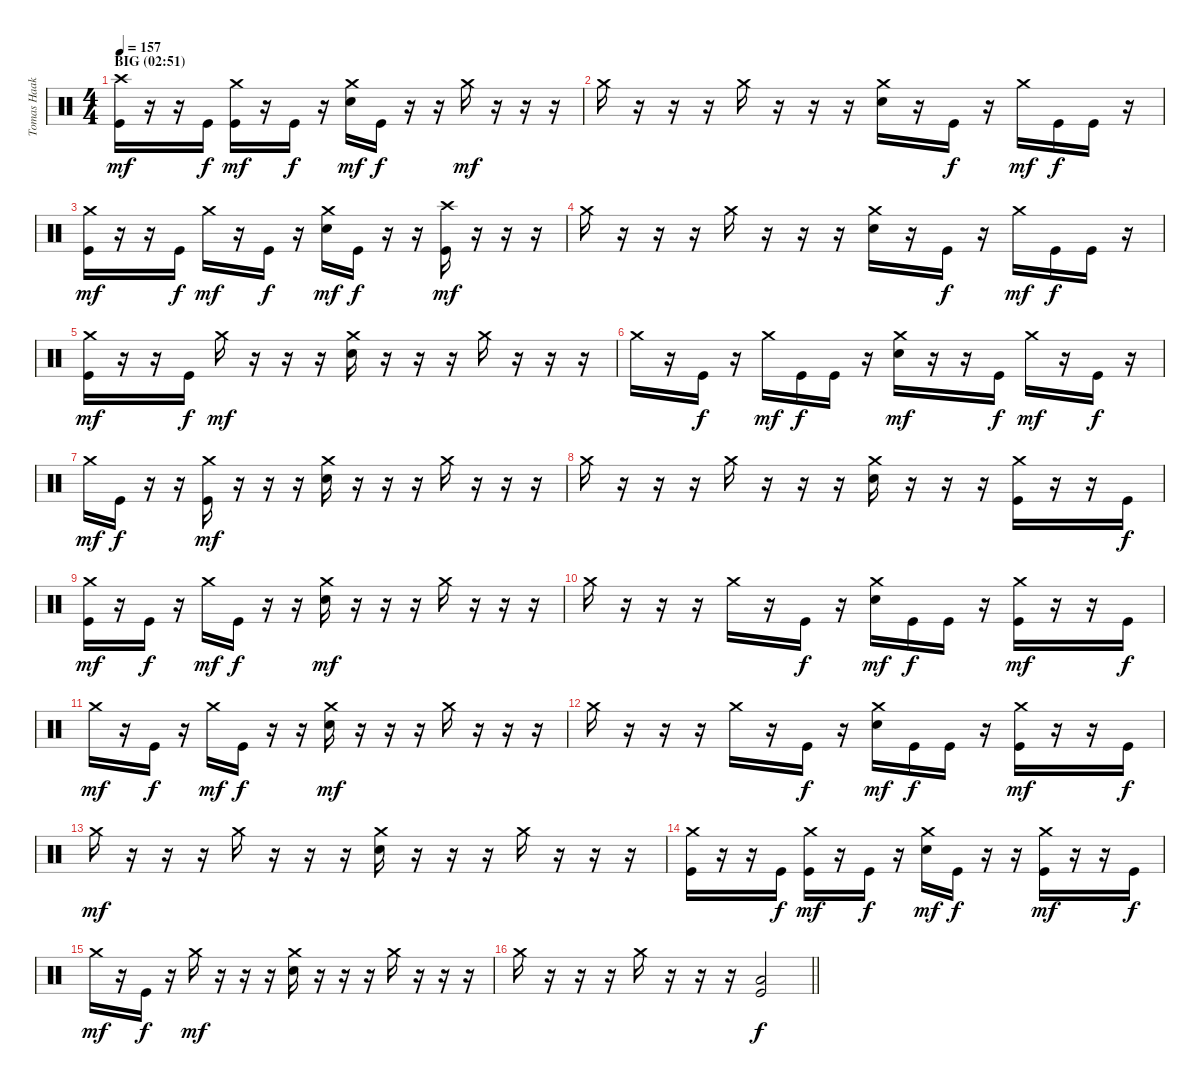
\track ("Tomas Haake (Drums)" "Tomas Haak") {instrument percussion}
\staff {score}
\articulation defaults
\ts (4 4)
\section ("" "BIG (02:51)")
\tempo 157
\clef neutral
\ks c
("Crash high (hit)" "Kick (hit)").16{dy mf} r.16 r.16 "Kick (hit)".16{dy f} ("Crash medium (hit)" "Kick (hit)").16{dy mf} r.16 "Kick (hit)".16{dy f} r.16 ("Crash medium (hit)" "Electric Snare (hit)").16{dy mf} "Kick (hit)".16{dy f} r.16 r.16 "Crash medium (hit)".16{dy mf} r.16 r.16 r.16 |
"Crash medium (hit)".16 r.16 r.16 r.16 "Crash medium (hit)".16 r.16 r.16 r.16 ("Crash medium (hit)" "Electric Snare (hit)").16 r.16 "Kick (hit)".16{dy f} r.16 "Crash medium (hit)".16{dy mf} "Kick (hit)".16{dy f} "Kick (hit)".16 r.16 |
("Crash medium (hit)" "Kick (hit)").16{dy mf} r.16 r.16 "Kick (hit)".16{dy f} "Crash medium (hit)".16{dy mf} r.16 "Kick (hit)".16{dy f} r.16 ("Crash medium (hit)" "Electric Snare (hit)").16{dy mf} "Kick (hit)".16{dy f} r.16 r.16 ("Crash high (hit)" "Kick (hit)").16{dy mf} r.16 r.16 r.16 |
"Crash medium (hit)".16 r.16 r.16 r.16 "Crash medium (hit)".16 r.16 r.16 r.16 ("Crash medium (hit)" "Electric Snare (hit)").16 r.16 "Kick (hit)".16{dy f} r.16 "Crash medium (hit)".16{dy mf} "Kick (hit)".16{dy f} "Kick (hit)".16 r.16 |
("Crash medium (hit)" "Kick (hit)").16{dy mf} r.16 r.16 "Kick (hit)".16{dy f} "Crash medium (hit)".16{dy mf} r.16 r.16 r.16 ("Crash medium (hit)" "Electric Snare (hit)").16 r.16 r.16 r.16 "Crash medium (hit)".16 r.16 r.16 r.16 |
"Crash medium (hit)".16 r.16 "Kick (hit)".16{dy f} r.16 "Crash medium (hit)".16{dy mf} "Kick (hit)".16{dy f} "Kick (hit)".16 r.16 ("Crash medium (hit)" "Electric Snare (hit)").16{dy mf} r.16 r.16 "Kick (hit)".16{dy f} "Crash medium (hit)".16{dy mf} r.16 "Kick (hit)".16{dy f} r.16 |
"Crash medium (hit)".16{dy mf} "Kick (hit)".16{dy f} r.16 r.16 ("Crash medium (hit)" "Kick (hit)").16{dy mf} r.16 r.16 r.16 ("Crash medium (hit)" "Electric Snare (hit)").16 r.16 r.16 r.16 "Crash medium (hit)".16 r.16 r.16 r.16 |
"Crash medium (hit)".16 r.16 r.16 r.16 "Crash medium (hit)".16 r.16 r.16 r.16 ("Crash medium (hit)" "Electric Snare (hit)").16 r.16 r.16 r.16 ("Crash medium (hit)" "Kick (hit)").16 r.16 r.16 "Kick (hit)".16{dy f} |
("Crash medium (hit)" "Kick (hit)").16{dy mf} r.16 "Kick (hit)".16{dy f} r.16 "Crash medium (hit)".16{dy mf} "Kick (hit)".16{dy f} r.16 r.16 ("Crash medium (hit)" "Electric Snare (hit)").16{dy mf} r.16 r.16 r.16 "Crash medium (hit)".16 r.16 r.16 r.16 |
"Crash medium (hit)".16 r.16 r.16 r.16 "Crash medium (hit)".16 r.16 "Kick (hit)".16{dy f} r.16 ("Crash medium (hit)" "Electric Snare (hit)").16{dy mf} "Kick (hit)".16{dy f} "Kick (hit)".16 r.16 ("Crash medium (hit)" "Kick (hit)").16{dy mf} r.16 r.16 "Kick (hit)".16{dy f} |
"Crash medium (hit)".16{dy mf} r.16 "Kick (hit)".16{dy f} r.16 "Crash medium (hit)".16{dy mf} "Kick (hit)".16{dy f} r.16 r.16 ("Crash medium (hit)" "Electric Snare (hit)").16{dy mf} r.16 r.16 r.16 "Crash medium (hit)".16 r.16 r.16 r.16 |
"Crash medium (hit)".16 r.16 r.16 r.16 "Crash medium (hit)".16 r.16 "Kick (hit)".16{dy f} r.16 ("Crash medium (hit)" "Electric Snare (hit)").16{dy mf} "Kick (hit)".16{dy f} "Kick (hit)".16 r.16 ("Crash medium (hit)" "Kick (hit)").16{dy mf} r.16 r.16 "Kick (hit)".16{dy f} |
"Crash medium (hit)".16{dy mf} r.16 r.16 r.16 "Crash medium (hit)".16 r.16 r.16 r.16 ("Crash medium (hit)" "Electric Snare (hit)").16 r.16 r.16 r.16 "Crash medium (hit)".16 r.16 r.16 r.16 |
("Crash medium (hit)" "Kick (hit)").16 r.16 r.16 "Kick (hit)".16{dy f} ("Crash medium (hit)" "Kick (hit)").16{dy mf} r.16 "Kick (hit)".16{dy f} r.16 ("Crash medium (hit)" "Electric Snare (hit)").16{dy mf} "Kick (hit)".16{dy f} r.16 r.16 ("Crash medium (hit)" "Kick (hit)").16{dy mf} r.16 r.16 "Kick (hit)".16{dy f} |
"Crash medium (hit)".16{dy mf} r.16 "Kick (hit)".16{dy f} r.16 "Crash medium (hit)".16{dy mf} r.16 r.16 r.16 ("Crash medium (hit)" "Electric Snare (hit)").16 r.16 r.16 r.16 "Crash medium (hit)".16 r.16 r.16 r.16 |
\barLineRight lightlight "Crash medium (hit)".16
r.16 r.16 r.16 "Crash medium (hit)".16 r.16 r.16 r.16 ("Low Floor Tom (hit)" "Kick (hit)").2{dy f}
